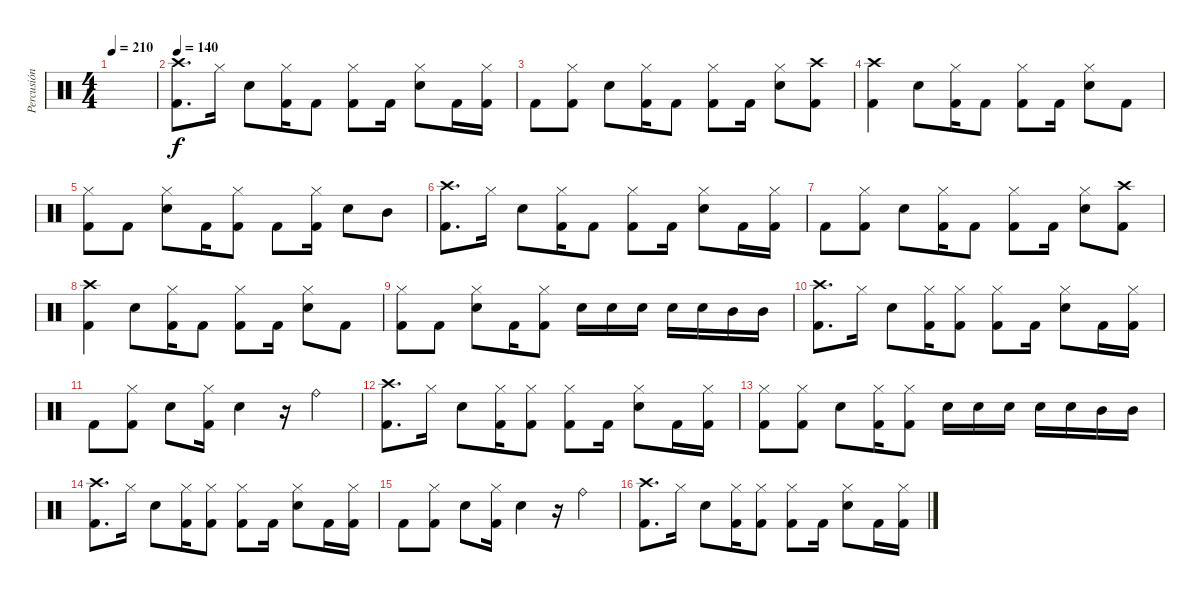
\track ("Percusión" "Percusión") {instrument percussion}
\staff {score}
\articulation defaults
\ts (4 4)
\tempo 210
\clef neutral
\ks c
|
\tempo 140
("Kick (hit) 2" "Crash high (hit)").8{d} "Hi-Hat (closed)".16 "Snare (hit) 2".8 ("Kick (hit) 2" "Hi-Hat (closed)").16 "Kick (hit) 2".8 ("Kick (hit) 2" "Hi-Hat (closed)").8 "Kick (hit) 2".16 ("Snare (hit) 2" "Hi-Hat (closed)").8 "Kick (hit) 2".16 ("Kick (hit) 2" "Hi-Hat (closed)").16 |
"Kick (hit) 2".8 ("Kick (hit) 2" "Hi-Hat (closed)").8 "Snare (hit) 2".8 ("Kick (hit) 2" "Hi-Hat (closed)").16 "Kick (hit) 2".8 ("Kick (hit) 2" "Hi-Hat (closed)").8 "Kick (hit) 2".16 ("Snare (hit) 2" "Hi-Hat (closed)").8 ("Kick (hit) 2" "Crash high (hit)").8 |
("Kick (hit) 2" "Crash high (hit)").4 "Snare (hit) 2".8 ("Kick (hit) 2" "Hi-Hat (closed)").16 "Kick (hit) 2".8 ("Kick (hit) 2" "Hi-Hat (closed)").8 "Kick (hit) 2".16 ("Snare (hit) 2" "Hi-Hat (closed)").8 "Kick (hit) 2".8 |
("Kick (hit) 2" "Hi-Hat (closed)").8 "Kick (hit) 2".8 ("Snare (hit) 2" "Hi-Hat (closed)").8 "Kick (hit) 2".16 ("Kick (hit) 2" "Hi-Hat (closed)").8 "Kick (hit) 2".8 ("Kick (hit) 2" "Hi-Hat (closed)").16 "Snare (hit) 2".8 "Mid Tom (hit)".8 |
("Kick (hit) 2" "Crash high (hit)").8{d} "Hi-Hat (closed)".16 "Snare (hit) 2".8 ("Kick (hit) 2" "Hi-Hat (closed)").16 "Kick (hit) 2".8 ("Kick (hit) 2" "Hi-Hat (closed)").8 "Kick (hit) 2".16 ("Snare (hit) 2" "Hi-Hat (closed)").8 "Kick (hit) 2".16 ("Kick (hit) 2" "Hi-Hat (closed)").16 |
"Kick (hit) 2".8 ("Kick (hit) 2" "Hi-Hat (closed)").8 "Snare (hit) 2".8 ("Kick (hit) 2" "Hi-Hat (closed)").16 "Kick (hit) 2".8 ("Kick (hit) 2" "Hi-Hat (closed)").8 "Kick (hit) 2".16 ("Snare (hit) 2" "Hi-Hat (closed)").8 ("Kick (hit) 2" "Crash high (hit)").8 |
("Kick (hit) 2" "Crash high (hit)").4 "Snare (hit) 2".8 ("Kick (hit) 2" "Hi-Hat (closed)").16 "Kick (hit) 2".8 ("Kick (hit) 2" "Hi-Hat (closed)").8 "Kick (hit) 2".16 ("Snare (hit) 2" "Hi-Hat (closed)").8 "Kick (hit) 2".8 |
("Kick (hit) 2" "Hi-Hat (closed)").8 "Kick (hit) 2".8 ("Snare (hit) 2" "Hi-Hat (closed)").8 "Kick (hit) 2".16 ("Kick (hit) 2" "Hi-Hat (closed)").8 "Snare (hit) 2".16 "Snare (hit) 2".16 "Snare (hit) 2".16 "Snare (hit) 2".16 "Snare (hit) 2".16 "Mid Tom (hit)".16 "Mid Tom (hit)".16 |
("Kick (hit) 2" "Crash high (hit)").8{d} "Hi-Hat (closed)".16 "Snare (hit) 2".8 ("Kick (hit) 2" "Hi-Hat (closed)").16 ("Kick (hit) 2" "Hi-Hat (closed)").8 ("Kick (hit) 2" "Hi-Hat (closed)").8 "Kick (hit) 2".16 ("Snare (hit) 2" "Hi-Hat (closed)").8 "Kick (hit) 2".16 ("Kick (hit) 2" "Hi-Hat (closed)").16 |
"Kick (hit) 2".8 ("Kick (hit) 2" "Hi-Hat (closed)").8 "Snare (hit) 2".8 ("Kick (hit) 2" "Hi-Hat (closed)").16 "Snare (hit) 2".4 r.16 "Ride (bell)".4 |
("Kick (hit) 2" "Crash high (hit)").8{d} "Hi-Hat (closed)".16 "Snare (hit) 2".8 ("Kick (hit) 2" "Hi-Hat (closed)").16 ("Kick (hit) 2" "Hi-Hat (closed)").8 ("Kick (hit) 2" "Hi-Hat (closed)").8 "Kick (hit) 2".16 ("Snare (hit) 2" "Hi-Hat (closed)").8 "Kick (hit) 2".16 ("Kick (hit) 2" "Hi-Hat (closed)").16 |
("Kick (hit) 2" "Hi-Hat (closed)").8 ("Kick (hit) 2" "Hi-Hat (closed)").8 "Snare (hit) 2".8 ("Kick (hit) 2" "Hi-Hat (closed)").16 ("Kick (hit) 2" "Hi-Hat (closed)").8 "Snare (hit) 2".16 "Snare (hit) 2".16 "Snare (hit) 2".16 "Snare (hit) 2".16 "Snare (hit) 2".16 "Mid Tom (hit)".16 "Mid Tom (hit)".16 |
("Kick (hit) 2" "Crash high (hit)").8{d} "Hi-Hat (closed)".16 "Snare (hit) 2".8 ("Kick (hit) 2" "Hi-Hat (closed)").16 ("Kick (hit) 2" "Hi-Hat (closed)").8 ("Kick (hit) 2" "Hi-Hat (closed)").8 "Kick (hit) 2".16 ("Snare (hit) 2" "Hi-Hat (closed)").8 "Kick (hit) 2".16 ("Kick (hit) 2" "Hi-Hat (closed)").16 |
"Kick (hit) 2".8 ("Kick (hit) 2" "Hi-Hat (closed)").8 "Snare (hit) 2".8 ("Kick (hit) 2" "Hi-Hat (closed)").16 "Snare (hit) 2".4 r.16 "Ride (bell)".4 |
("Kick (hit) 2" "Crash high (hit)").8{d} "Hi-Hat (closed)".16 "Snare (hit) 2".8 ("Kick (hit) 2" "Hi-Hat (closed)").16 ("Kick (hit) 2" "Hi-Hat (closed)").8 ("Kick (hit) 2" "Hi-Hat (closed)").8 "Kick (hit) 2".16 ("Snare (hit) 2" "Hi-Hat (closed)").8 "Kick (hit) 2".16 ("Kick (hit) 2" "Hi-Hat (closed)").16
